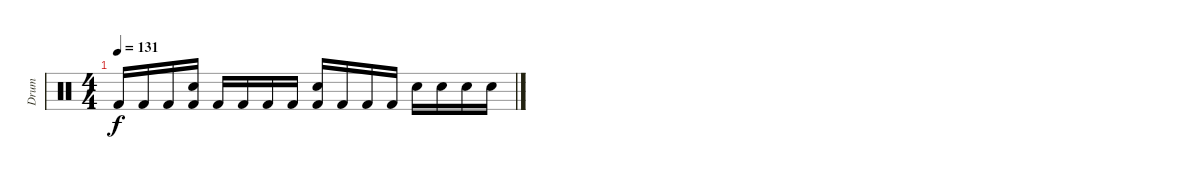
\track ("Drum" "Drum") {instrument percussion}
\staff {score}
\articulation defaults
\ts (4 4)
\tempo 131
\clef neutral
\ks c "Kick (hit) 2".16{dy f} "Kick (hit) 2".16 "Kick (hit) 2".16
("Electric Snare (hit)" "Kick (hit) 2").16 "Kick (hit) 2".16 "Kick (hit) 2".16 "Kick (hit) 2".16 "Kick (hit) 2".16 ("Electric Snare (hit)" "Kick (hit) 2").16 "Kick (hit) 2".16 "Kick (hit) 2".16 "Kick (hit) 2".16 "Electric Snare (hit)".16 "Electric Snare (hit)".16 "Electric Snare (hit)".16 "Electric Snare (hit)".16
